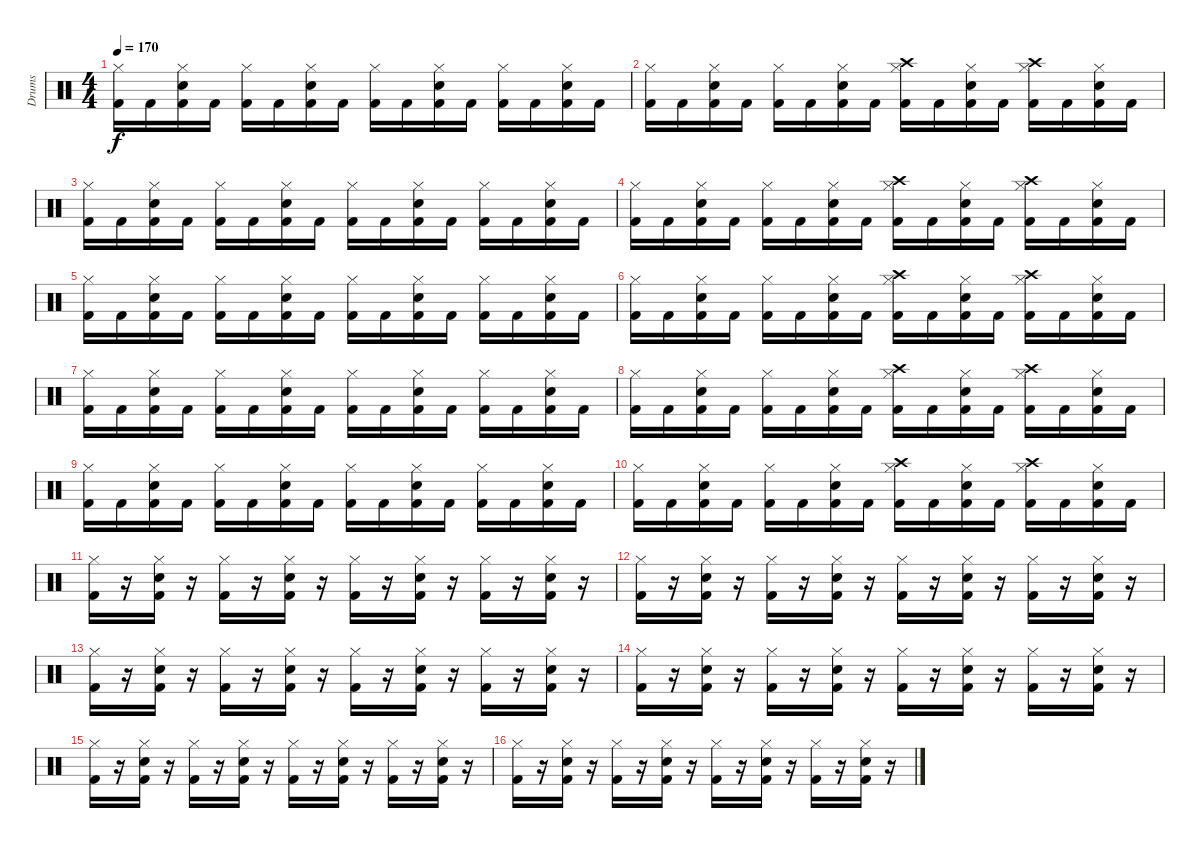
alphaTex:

\track ("Drums" "Drums") {instrument percussion}
\staff {score}
\articulation defaults
\ts (4 4)
\tempo 170
\clef neutral
\ks c
("Kick (hit) 2" "Hi-Hat (closed)").16{dy f} "Kick (hit) 2".16 ("Kick (hit) 2" "Hi-Hat (closed)" "Electric Snare (hit)").16 "Kick (hit) 2".16 ("Kick (hit) 2" "Hi-Hat (closed)").16 "Kick (hit) 2".16 ("Kick (hit) 2" "Hi-Hat (closed)" "Electric Snare (hit)").16 "Kick (hit) 2".16 ("Kick (hit) 2" "Hi-Hat (closed)").16 "Kick (hit) 2".16 ("Kick (hit) 2" "Hi-Hat (closed)" "Electric Snare (hit)").16 "Kick (hit) 2".16 ("Kick (hit) 2" "Hi-Hat (closed)").16 "Kick (hit) 2".16 ("Kick (hit) 2" "Hi-Hat (closed)" "Electric Snare (hit)").16 "Kick (hit) 2".16 |
("Kick (hit) 2" "Hi-Hat (closed)").16 "Kick (hit) 2".16 ("Kick (hit) 2" "Hi-Hat (closed)" "Electric Snare (hit)").16 "Kick (hit) 2".16 ("Kick (hit) 2" "Hi-Hat (closed)").16 "Kick (hit) 2".16 ("Kick (hit) 2" "Hi-Hat (closed)" "Electric Snare (hit)").16 "Kick (hit) 2".16 ("Kick (hit) 2" "Hi-Hat (closed)" "Crash high (hit)").16 "Kick (hit) 2".16 ("Kick (hit) 2" "Hi-Hat (closed)" "Electric Snare (hit)").16 "Kick (hit) 2".16 ("Kick (hit) 2" "Hi-Hat (closed)" "Crash high (hit)").16 "Kick (hit) 2".16 ("Kick (hit) 2" "Hi-Hat (closed)" "Electric Snare (hit)").16 "Kick (hit) 2".16 |
("Kick (hit) 2" "Hi-Hat (closed)").16 "Kick (hit) 2".16 ("Kick (hit) 2" "Hi-Hat (closed)" "Electric Snare (hit)").16 "Kick (hit) 2".16 ("Kick (hit) 2" "Hi-Hat (closed)").16 "Kick (hit) 2".16 ("Kick (hit) 2" "Hi-Hat (closed)" "Electric Snare (hit)").16 "Kick (hit) 2".16 ("Kick (hit) 2" "Hi-Hat (closed)").16 "Kick (hit) 2".16 ("Kick (hit) 2" "Hi-Hat (closed)" "Electric Snare (hit)").16 "Kick (hit) 2".16 ("Kick (hit) 2" "Hi-Hat (closed)").16 "Kick (hit) 2".16 ("Kick (hit) 2" "Hi-Hat (closed)" "Electric Snare (hit)").16 "Kick (hit) 2".16 |
("Kick (hit) 2" "Hi-Hat (closed)").16 "Kick (hit) 2".16 ("Kick (hit) 2" "Hi-Hat (closed)" "Electric Snare (hit)").16 "Kick (hit) 2".16 ("Kick (hit) 2" "Hi-Hat (closed)").16 "Kick (hit) 2".16 ("Kick (hit) 2" "Hi-Hat (closed)" "Electric Snare (hit)").16 "Kick (hit) 2".16 ("Kick (hit) 2" "Hi-Hat (closed)" "Crash high (hit)").16 "Kick (hit) 2".16 ("Kick (hit) 2" "Hi-Hat (closed)" "Electric Snare (hit)").16 "Kick (hit) 2".16 ("Kick (hit) 2" "Hi-Hat (closed)" "Crash high (hit)").16 "Kick (hit) 2".16 ("Kick (hit) 2" "Hi-Hat (closed)" "Electric Snare (hit)").16 "Kick (hit) 2".16 |
("Kick (hit) 2" "Hi-Hat (closed)").16 "Kick (hit) 2".16 ("Kick (hit) 2" "Hi-Hat (closed)" "Electric Snare (hit)").16 "Kick (hit) 2".16 ("Kick (hit) 2" "Hi-Hat (closed)").16 "Kick (hit) 2".16 ("Kick (hit) 2" "Hi-Hat (closed)" "Electric Snare (hit)").16 "Kick (hit) 2".16 ("Kick (hit) 2" "Hi-Hat (closed)").16 "Kick (hit) 2".16 ("Kick (hit) 2" "Hi-Hat (closed)" "Electric Snare (hit)").16 "Kick (hit) 2".16 ("Kick (hit) 2" "Hi-Hat (closed)").16 "Kick (hit) 2".16 ("Kick (hit) 2" "Hi-Hat (closed)" "Electric Snare (hit)").16 "Kick (hit) 2".16 |
("Kick (hit) 2" "Hi-Hat (closed)").16 "Kick (hit) 2".16 ("Kick (hit) 2" "Hi-Hat (closed)" "Electric Snare (hit)").16 "Kick (hit) 2".16 ("Kick (hit) 2" "Hi-Hat (closed)").16 "Kick (hit) 2".16 ("Kick (hit) 2" "Hi-Hat (closed)" "Electric Snare (hit)").16 "Kick (hit) 2".16 ("Kick (hit) 2" "Hi-Hat (closed)" "Crash high (hit)").16 "Kick (hit) 2".16 ("Kick (hit) 2" "Hi-Hat (closed)" "Electric Snare (hit)").16 "Kick (hit) 2".16 ("Kick (hit) 2" "Hi-Hat (closed)" "Crash high (hit)").16 "Kick (hit) 2".16 ("Kick (hit) 2" "Hi-Hat (closed)" "Electric Snare (hit)").16 "Kick (hit) 2".16 |
("Kick (hit) 2" "Hi-Hat (closed)").16 "Kick (hit) 2".16 ("Kick (hit) 2" "Hi-Hat (closed)" "Electric Snare (hit)").16 "Kick (hit) 2".16 ("Kick (hit) 2" "Hi-Hat (closed)").16 "Kick (hit) 2".16 ("Kick (hit) 2" "Hi-Hat (closed)" "Electric Snare (hit)").16 "Kick (hit) 2".16 ("Kick (hit) 2" "Hi-Hat (closed)").16 "Kick (hit) 2".16 ("Kick (hit) 2" "Hi-Hat (closed)" "Electric Snare (hit)").16 "Kick (hit) 2".16 ("Kick (hit) 2" "Hi-Hat (closed)").16 "Kick (hit) 2".16 ("Kick (hit) 2" "Hi-Hat (closed)" "Electric Snare (hit)").16 "Kick (hit) 2".16 |
("Kick (hit) 2" "Hi-Hat (closed)").16 "Kick (hit) 2".16 ("Kick (hit) 2" "Hi-Hat (closed)" "Electric Snare (hit)").16 "Kick (hit) 2".16 ("Kick (hit) 2" "Hi-Hat (closed)").16 "Kick (hit) 2".16 ("Kick (hit) 2" "Hi-Hat (closed)" "Electric Snare (hit)").16 "Kick (hit) 2".16 ("Kick (hit) 2" "Hi-Hat (closed)" "Crash high (hit)").16 "Kick (hit) 2".16 ("Kick (hit) 2" "Hi-Hat (closed)" "Electric Snare (hit)").16 "Kick (hit) 2".16 ("Kick (hit) 2" "Hi-Hat (closed)" "Crash high (hit)").16 "Kick (hit) 2".16 ("Kick (hit) 2" "Hi-Hat (closed)" "Electric Snare (hit)").16 "Kick (hit) 2".16 |
("Kick (hit) 2" "Hi-Hat (closed)").16 "Kick (hit) 2".16 ("Kick (hit) 2" "Hi-Hat (closed)" "Electric Snare (hit)").16 "Kick (hit) 2".16 ("Kick (hit) 2" "Hi-Hat (closed)").16 "Kick (hit) 2".16 ("Kick (hit) 2" "Hi-Hat (closed)" "Electric Snare (hit)").16 "Kick (hit) 2".16 ("Kick (hit) 2" "Hi-Hat (closed)").16 "Kick (hit) 2".16 ("Kick (hit) 2" "Hi-Hat (closed)" "Electric Snare (hit)").16 "Kick (hit) 2".16 ("Kick (hit) 2" "Hi-Hat (closed)").16 "Kick (hit) 2".16 ("Kick (hit) 2" "Hi-Hat (closed)" "Electric Snare (hit)").16 "Kick (hit) 2".16 |
("Kick (hit) 2" "Hi-Hat (closed)").16 "Kick (hit) 2".16 ("Kick (hit) 2" "Hi-Hat (closed)" "Electric Snare (hit)").16 "Kick (hit) 2".16 ("Kick (hit) 2" "Hi-Hat (closed)").16 "Kick (hit) 2".16 ("Kick (hit) 2" "Hi-Hat (closed)" "Electric Snare (hit)").16 "Kick (hit) 2".16 ("Kick (hit) 2" "Hi-Hat (closed)" "Crash high (hit)").16 "Kick (hit) 2".16 ("Kick (hit) 2" "Hi-Hat (closed)" "Electric Snare (hit)").16 "Kick (hit) 2".16 ("Kick (hit) 2" "Hi-Hat (closed)" "Crash high (hit)").16 "Kick (hit) 2".16 ("Kick (hit) 2" "Hi-Hat (closed)" "Electric Snare (hit)").16 "Kick (hit) 2".16 |
("Kick (hit) 2" "Hi-Hat (closed)").16 r.16 ("Kick (hit) 2" "Hi-Hat (closed)" "Electric Snare (hit)").16 r.16 ("Kick (hit) 2" "Hi-Hat (closed)").16 r.16 ("Kick (hit) 2" "Hi-Hat (closed)" "Electric Snare (hit)").16 r.16 ("Kick (hit) 2" "Hi-Hat (closed)").16 r.16 ("Kick (hit) 2" "Hi-Hat (closed)" "Electric Snare (hit)").16 r.16 ("Kick (hit) 2" "Hi-Hat (closed)").16 r.16 ("Kick (hit) 2" "Hi-Hat (closed)" "Electric Snare (hit)").16 r.16 |
("Kick (hit) 2" "Hi-Hat (closed)").16 r.16 ("Kick (hit) 2" "Hi-Hat (closed)" "Electric Snare (hit)").16 r.16 ("Kick (hit) 2" "Hi-Hat (closed)").16 r.16 ("Kick (hit) 2" "Hi-Hat (closed)" "Electric Snare (hit)").16 r.16 ("Kick (hit) 2" "Hi-Hat (closed)").16 r.16 ("Kick (hit) 2" "Hi-Hat (closed)" "Electric Snare (hit)").16 r.16 ("Kick (hit) 2" "Hi-Hat (closed)").16 r.16 ("Kick (hit) 2" "Hi-Hat (closed)" "Electric Snare (hit)").16 r.16 |
("Kick (hit) 2" "Hi-Hat (closed)").16 r.16 ("Kick (hit) 2" "Hi-Hat (closed)" "Electric Snare (hit)").16 r.16 ("Kick (hit) 2" "Hi-Hat (closed)").16 r.16 ("Kick (hit) 2" "Hi-Hat (closed)" "Electric Snare (hit)").16 r.16 ("Kick (hit) 2" "Hi-Hat (closed)").16 r.16 ("Kick (hit) 2" "Hi-Hat (closed)" "Electric Snare (hit)").16 r.16 ("Kick (hit) 2" "Hi-Hat (closed)").16 r.16 ("Kick (hit) 2" "Hi-Hat (closed)" "Electric Snare (hit)").16 r.16 |
("Kick (hit) 2" "Hi-Hat (closed)").16 r.16 ("Kick (hit) 2" "Hi-Hat (closed)" "Electric Snare (hit)").16 r.16 ("Kick (hit) 2" "Hi-Hat (closed)").16 r.16 ("Kick (hit) 2" "Hi-Hat (closed)" "Electric Snare (hit)").16 r.16 ("Kick (hit) 2" "Hi-Hat (closed)").16 r.16 ("Kick (hit) 2" "Hi-Hat (closed)" "Electric Snare (hit)").16 r.16 ("Kick (hit) 2" "Hi-Hat (closed)").16 r.16 ("Kick (hit) 2" "Hi-Hat (closed)" "Electric Snare (hit)").16 r.16 |
("Kick (hit) 2" "Hi-Hat (closed)").16 r.16 ("Kick (hit) 2" "Hi-Hat (closed)" "Electric Snare (hit)").16 r.16 ("Kick (hit) 2" "Hi-Hat (closed)").16 r.16 ("Kick (hit) 2" "Hi-Hat (closed)" "Electric Snare (hit)").16 r.16 ("Kick (hit) 2" "Hi-Hat (closed)").16 r.16 ("Kick (hit) 2" "Hi-Hat (closed)" "Electric Snare (hit)").16 r.16 ("Kick (hit) 2" "Hi-Hat (closed)").16 r.16 ("Kick (hit) 2" "Hi-Hat (closed)" "Electric Snare (hit)").16 r.16 |
("Kick (hit) 2" "Hi-Hat (closed)").16 r.16 ("Kick (hit) 2" "Hi-Hat (closed)" "Electric Snare (hit)").16 r.16 ("Kick (hit) 2" "Hi-Hat (closed)").16 r.16 ("Kick (hit) 2" "Hi-Hat (closed)" "Electric Snare (hit)").16 r.16 ("Kick (hit) 2" "Hi-Hat (closed)").16 r.16 ("Kick (hit) 2" "Hi-Hat (closed)" "Electric Snare (hit)").16 r.16 ("Kick (hit) 2" "Hi-Hat (closed)").16 r.16 ("Kick (hit) 2" "Hi-Hat (closed)" "Electric Snare (hit)").16 r.16
